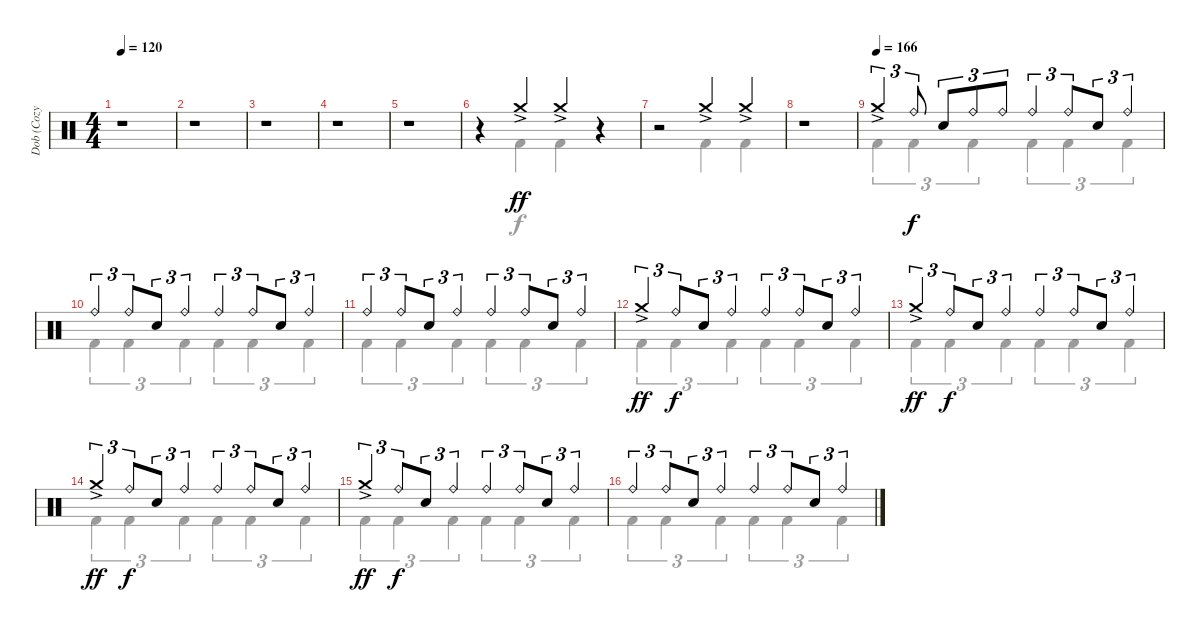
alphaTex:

\track ("Dob (Cozy Powell)" "Dob (Cozy ") {instrument percussion}
\staff {score}
\articulation defaults
\voice
\ts (4 4)
\tempo 120
\clef neutral
\ks c
r.1{dy ff} |
r.1 |
r.1 |
r.1 |
r.1 |
r.4 "Crash medium (hit)"{ac}.4 "Crash medium (hit)"{ac}.4 r.4 |
r.2 "Crash medium (hit)"{ac}.4 "Crash medium (hit)"{ac}.4 |
r.1 |
\tempo (166)
"Crash medium (hit)"{ac}.4{tu (3 2)} "Ride (bell)".8{tu (3 2) dy f} "Electric Snare (hit)".8{tu (3 2)} "Ride (bell)".8{tu (3 2)} "Ride (bell)".8{tu (3 2)} "Ride (bell)".4{tu (3 2)} "Ride (bell)".8{tu (3 2) beam merge} "Electric Snare (hit)".8{tu (3 2)} "Ride (bell)".4{tu (3 2)} |
"Ride (bell)".4{tu (3 2)} "Ride (bell)".8{tu (3 2) beam merge} "Electric Snare (hit)".8{tu (3 2)} "Ride (bell)".4{tu (3 2)} "Ride (bell)".4{tu (3 2)} "Ride (bell)".8{tu (3 2) beam merge} "Electric Snare (hit)".8{tu (3 2)} "Ride (bell)".4{tu (3 2)} |
"Ride (bell)".4{tu (3 2)} "Ride (bell)".8{tu (3 2) beam merge} "Electric Snare (hit)".8{tu (3 2)} "Ride (bell)".4{tu (3 2)} "Ride (bell)".4{tu (3 2)} "Ride (bell)".8{tu (3 2) beam merge} "Electric Snare (hit)".8{tu (3 2)} "Ride (bell)".4{tu (3 2)} |
"Crash medium (hit)"{ac}.4{tu (3 2) dy ff} "Ride (bell)".8{tu (3 2) dy f beam merge} "Electric Snare (hit)".8{tu (3 2)} "Ride (bell)".4{tu (3 2)} "Ride (bell)".4{tu (3 2)} "Ride (bell)".8{tu (3 2) beam merge} "Electric Snare (hit)".8{tu (3 2)} "Ride (bell)".4{tu (3 2)} |
"Crash medium (hit)"{ac}.4{tu (3 2) dy ff} "Ride (bell)".8{tu (3 2) dy f beam merge} "Electric Snare (hit)".8{tu (3 2)} "Ride (bell)".4{tu (3 2)} "Ride (bell)".4{tu (3 2)} "Ride (bell)".8{tu (3 2) beam merge} "Electric Snare (hit)".8{tu (3 2)} "Ride (bell)".4{tu (3 2)} |
"Crash medium (hit)"{ac}.4{tu (3 2) dy ff} "Ride (bell)".8{tu (3 2) dy f beam merge} "Electric Snare (hit)".8{tu (3 2)} "Ride (bell)".4{tu (3 2)} "Ride (bell)".4{tu (3 2)} "Ride (bell)".8{tu (3 2) beam merge} "Electric Snare (hit)".8{tu (3 2)} "Ride (bell)".4{tu (3 2)} |
"Crash medium (hit)"{ac}.4{tu (3 2) dy ff} "Ride (bell)".8{tu (3 2) dy f beam merge} "Electric Snare (hit)".8{tu (3 2)} "Ride (bell)".4{tu (3 2)} "Ride (bell)".4{tu (3 2)} "Ride (bell)".8{tu (3 2) beam merge} "Electric Snare (hit)".8{tu (3 2)} "Ride (bell)".4{tu (3 2)} |
"Ride (bell)".4{tu (3 2)} "Ride (bell)".8{tu (3 2) beam merge} "Electric Snare (hit)".8{tu (3 2)} "Ride (bell)".4{tu (3 2)} "Ride (bell)".4{tu (3 2)} "Ride (bell)".8{tu (3 2) beam merge} "Electric Snare (hit)".8{tu (3 2)} "Ride (bell)".4{tu (3 2)}
\voice
\clef neutral
\ottava regular
\simile none
\ks c
r.1{dy f} |
r.1 |
r.1 |
r.1 |
r.1 |
r.4 "Kick (hit) 2".4 "Kick (hit) 2".4 r.4 |
r.2 "Kick (hit) 2".4 "Kick (hit) 2".4 |
r.1 |
"Kick (hit) 2".4{tu (3 2)} "Kick (hit) 2".4{tu (3 2)} "Kick (hit) 2".4{tu (3 2)} "Kick (hit) 2".4{tu (3 2)} "Kick (hit) 2".4{tu (3 2)} "Kick (hit) 2".4{tu (3 2)} |
"Kick (hit) 2".4{tu (3 2)} "Kick (hit) 2".4{tu (3 2)} "Kick (hit) 2".4{tu (3 2)} "Kick (hit) 2".4{tu (3 2)} "Kick (hit) 2".4{tu (3 2)} "Kick (hit) 2".4{tu (3 2)} |
"Kick (hit) 2".4{tu (3 2)} "Kick (hit) 2".4{tu (3 2)} "Kick (hit) 2".4{tu (3 2)} "Kick (hit) 2".4{tu (3 2)} "Kick (hit) 2".4{tu (3 2)} "Kick (hit) 2".4{tu (3 2)} |
"Kick (hit) 2".4{tu (3 2)} "Kick (hit) 2".4{tu (3 2)} "Kick (hit) 2".4{tu (3 2)} "Kick (hit) 2".4{tu (3 2)} "Kick (hit) 2".4{tu (3 2)} "Kick (hit) 2".4{tu (3 2)} |
"Kick (hit) 2".4{tu (3 2)} "Kick (hit) 2".4{tu (3 2)} "Kick (hit) 2".4{tu (3 2)} "Kick (hit) 2".4{tu (3 2)} "Kick (hit) 2".4{tu (3 2)} "Kick (hit) 2".4{tu (3 2)} |
"Kick (hit) 2".4{tu (3 2)} "Kick (hit) 2".4{tu (3 2)} "Kick (hit) 2".4{tu (3 2)} "Kick (hit) 2".4{tu (3 2)} "Kick (hit) 2".4{tu (3 2)} "Kick (hit) 2".4{tu (3 2)} |
"Kick (hit) 2".4{tu (3 2)} "Kick (hit) 2".4{tu (3 2)} "Kick (hit) 2".4{tu (3 2)} "Kick (hit) 2".4{tu (3 2)} "Kick (hit) 2".4{tu (3 2)} "Kick (hit) 2".4{tu (3 2)} |
"Kick (hit) 2".4{tu (3 2)} "Kick (hit) 2".4{tu (3 2)} "Kick (hit) 2".4{tu (3 2)} "Kick (hit) 2".4{tu (3 2)} "Kick (hit) 2".4{tu (3 2)} "Kick (hit) 2".4{tu (3 2)}
